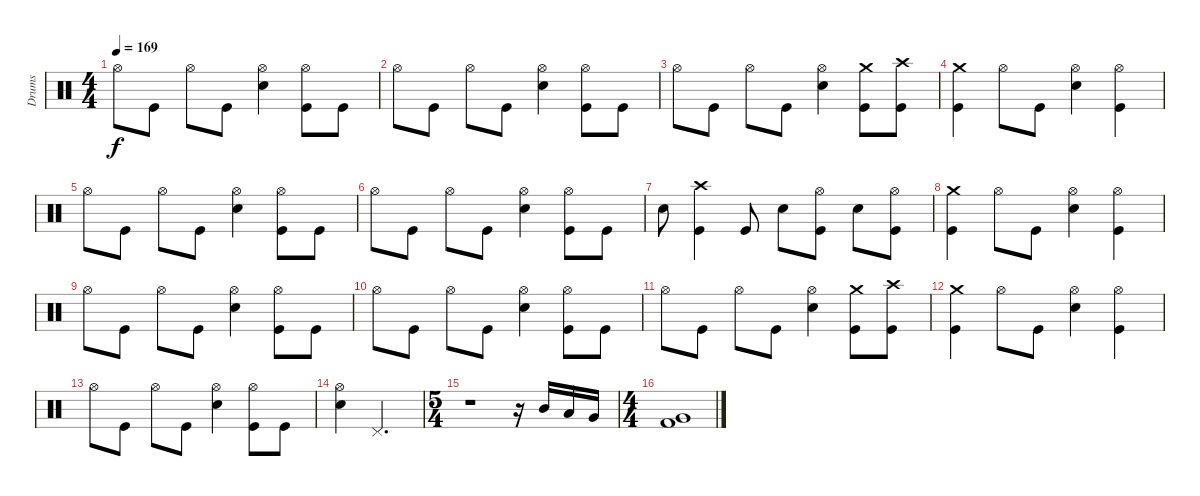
\track ("Drums" "Drums") {instrument percussion}
\staff {score}
\articulation defaults
\ts (4 4)
\tempo 169
\clef neutral
\ks c "Hi-Hat (open)".8{dy f} "Kick (hit)".8 "Hi-Hat (open)".8 "Kick (hit)".8
("Hi-Hat (open)" "Snare (hit) 2").4 ("Hi-Hat (open)" "Kick (hit)").8 "Kick (hit)".8 |
"Hi-Hat (open)".8 "Kick (hit)".8 "Hi-Hat (open)".8 "Kick (hit)".8 ("Hi-Hat (open)" "Snare (hit) 2").4 ("Hi-Hat (open)" "Kick (hit)").8 "Kick (hit)".8 |
"Hi-Hat (open)".8 "Kick (hit)".8 "Hi-Hat (open)".8 "Kick (hit)".8 ("Hi-Hat (open)" "Snare (hit) 2").4 ("Crash medium (hit)" "Kick (hit)").8 ("Crash high (hit)" "Kick (hit)").8 |
("Crash medium (hit)" "Kick (hit)").4 "Hi-Hat (open)".8 "Kick (hit)".8 ("Hi-Hat (open)" "Snare (hit) 2").4 ("Hi-Hat (open)" "Kick (hit)").4 |
"Hi-Hat (open)".8 "Kick (hit)".8 "Hi-Hat (open)".8 "Kick (hit)".8 ("Hi-Hat (open)" "Snare (hit) 2").4 ("Hi-Hat (open)" "Kick (hit)").8 "Kick (hit)".8 |
"Hi-Hat (open)".8 "Kick (hit)".8 "Hi-Hat (open)".8 "Kick (hit)".8 ("Hi-Hat (open)" "Snare (hit) 2").4 ("Hi-Hat (open)" "Kick (hit)").8 "Kick (hit)".8 |
"Snare (hit) 2".8 ("Crash high (hit)" "Kick (hit)").4 "Kick (hit)".8 "Snare (hit) 2".8 ("Hi-Hat (open)" "Kick (hit)").8 "Snare (hit) 2".8 ("Hi-Hat (open)" "Kick (hit)").8 |
("Crash medium (hit)" "Kick (hit)").4 "Hi-Hat (open)".8 "Kick (hit)".8 ("Hi-Hat (open)" "Snare (hit) 2").4 ("Hi-Hat (open)" "Kick (hit)").4 |
"Hi-Hat (open)".8 "Kick (hit)".8 "Hi-Hat (open)".8 "Kick (hit)".8 ("Hi-Hat (open)" "Snare (hit) 2").4 ("Hi-Hat (open)" "Kick (hit)").8 "Kick (hit)".8 |
"Hi-Hat (open)".8 "Kick (hit)".8 "Hi-Hat (open)".8 "Kick (hit)".8 ("Hi-Hat (open)" "Snare (hit) 2").4 ("Hi-Hat (open)" "Kick (hit)").8 "Kick (hit)".8 |
"Hi-Hat (open)".8 "Kick (hit)".8 "Hi-Hat (open)".8 "Kick (hit)".8 ("Hi-Hat (open)" "Snare (hit) 2").4 ("Crash medium (hit)" "Kick (hit)").8 ("Crash high (hit)" "Kick (hit)").8 |
("Crash medium (hit)" "Kick (hit)").4 "Hi-Hat (open)".8 "Kick (hit)".8 ("Hi-Hat (open)" "Snare (hit) 2").4 ("Hi-Hat (open)" "Kick (hit)").4 |
"Hi-Hat (open)".8 "Kick (hit)".8 "Hi-Hat (open)".8 "Kick (hit)".8 ("Hi-Hat (open)" "Snare (hit) 2").4 ("Hi-Hat (open)" "Kick (hit)").8 "Kick (hit)".8 |
("Hi-Hat (open)" "Snare (hit) 2").4 "Pedal Hi-Hat (hit)".2{d} |
\ts (5 4)
r.1 r.16 "Mid Tom (hit)".16 "Low Tom (hit)".16 "Very Low Tom (hit)".16 |
\ts (4 4)
("Very Low Tom (hit)" "Kick (hit) 2").1
